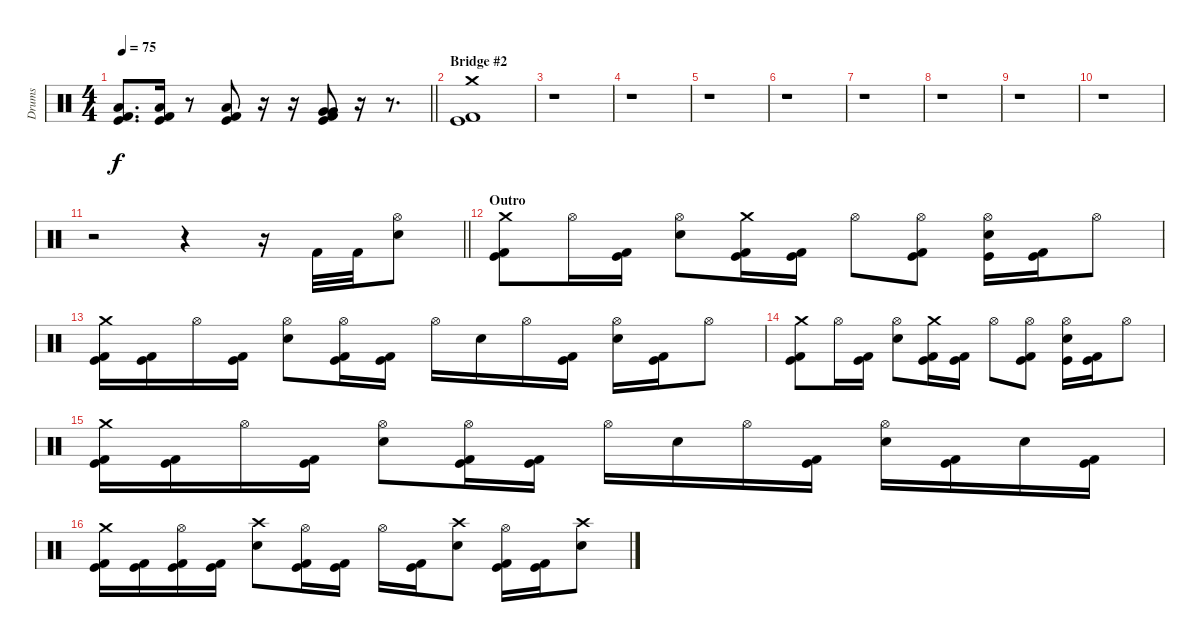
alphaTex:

\track ("Drums" "Drums") {instrument percussion}
\staff {score}
\articulation defaults
\ts (4 4)
\tempo 75
\clef neutral
\barLineRight lightlight
\ks c
("Kick (hit) 2" "Kick (hit)" "Low Tom (hit)").8{d dy f} ("Kick (hit) 2" "Kick (hit)" "Low Tom (hit)").16 r.8 ("Kick (hit) 2" "Kick (hit)" "Low Tom (hit)").8 r.16 r.16 ("Kick (hit) 2" "Kick (hit)" "Very Low Tom (hit)" "Very Low Tom (hit)").8 r.16 r.8{d} |
\section ("" "Bridge #2")
("Crash medium (hit)" "Kick (hit) 2" "Kick (hit)").1 |
r.1 |
r.1 |
r.1 |
r.1 |
r.1 |
r.1 |
r.1 |
r.1 |
\barLineRight lightlight
r.2 r.4 r.16 "Kick (hit) 2".32 "Kick (hit) 2".32 ("Hi-Hat (open)" "Electric Snare (hit)").8 |
\section ("" "Outro")
("Crash medium (hit)" "Kick (hit) 2" "Kick (hit)").8 "Hi-Hat (open)".16 ("Kick (hit) 2" "Kick (hit)").16 ("Hi-Hat (open)" "Electric Snare (hit)").8 ("Crash medium (hit)" "Kick (hit) 2" "Kick (hit)").16 ("Kick (hit) 2" "Kick (hit)").16 "Hi-Hat (open)".8 ("Hi-Hat (open)" "Kick (hit) 2" "Kick (hit)").8 ("Hi-Hat (open)" "Electric Snare (hit)" "Kick (hit)").16 ("Kick (hit) 2" "Kick (hit)").16 "Hi-Hat (open)".8 |
("Crash medium (hit)" "Kick (hit) 2" "Kick (hit)").16 ("Kick (hit) 2" "Kick (hit)").16 "Hi-Hat (open)".16 ("Kick (hit) 2" "Kick (hit)").16 ("Hi-Hat (open)" "Electric Snare (hit)").8 ("Hi-Hat (open)" "Kick (hit) 2" "Kick (hit)").16 ("Kick (hit) 2" "Kick (hit)").16 "Hi-Hat (open)".16 "Electric Snare (hit)".16 "Hi-Hat (open)".16 ("Kick (hit) 2" "Kick (hit)").16 ("Hi-Hat (open)" "Electric Snare (hit)").16 ("Kick (hit) 2" "Kick (hit)").16 "Hi-Hat (open)".8 |
("Crash medium (hit)" "Kick (hit) 2" "Kick (hit)").8 "Hi-Hat (open)".16 ("Kick (hit) 2" "Kick (hit)").16 ("Hi-Hat (open)" "Electric Snare (hit)").8 ("Crash medium (hit)" "Kick (hit) 2" "Kick (hit)").16 ("Kick (hit) 2" "Kick (hit)").16 "Hi-Hat (open)".8 ("Hi-Hat (open)" "Kick (hit) 2" "Kick (hit)").8 ("Hi-Hat (open)" "Electric Snare (hit)" "Kick (hit)").16 ("Kick (hit) 2" "Kick (hit)").16 "Hi-Hat (open)".8 |
("Crash medium (hit)" "Kick (hit) 2" "Kick (hit)").16 ("Kick (hit) 2" "Kick (hit)").16 "Hi-Hat (open)".16 ("Kick (hit) 2" "Kick (hit)").16 ("Hi-Hat (open)" "Electric Snare (hit)").8 ("Hi-Hat (open)" "Kick (hit) 2" "Kick (hit)").16 ("Kick (hit) 2" "Kick (hit)").16 "Hi-Hat (open)".16 "Electric Snare (hit)".16 "Hi-Hat (open)".16 ("Kick (hit) 2" "Kick (hit)").16 ("Hi-Hat (open)" "Electric Snare (hit)").16 ("Kick (hit) 2" "Kick (hit)").16 "Electric Snare (hit)".16 ("Kick (hit) 2" "Kick (hit)").16 |
("Crash medium (hit)" "Kick (hit) 2" "Kick (hit)").16 ("Kick (hit) 2" "Kick (hit)").16 ("Hi-Hat (open)" "Kick (hit) 2" "Kick (hit)").16 ("Kick (hit) 2" "Kick (hit)").16 ("Crash high (hit)" "Electric Snare (hit)").8 ("Hi-Hat (open)" "Kick (hit) 2" "Kick (hit)").16 ("Kick (hit) 2" "Kick (hit)").16 "Hi-Hat (open)".16 ("Kick (hit) 2" "Kick (hit)").16 ("Crash high (hit)" "Electric Snare (hit)").8 ("Hi-Hat (open)" "Kick (hit) 2" "Kick (hit)").16 ("Kick (hit) 2" "Kick (hit)").16 ("Crash high (hit)" "Electric Snare (hit)").8
